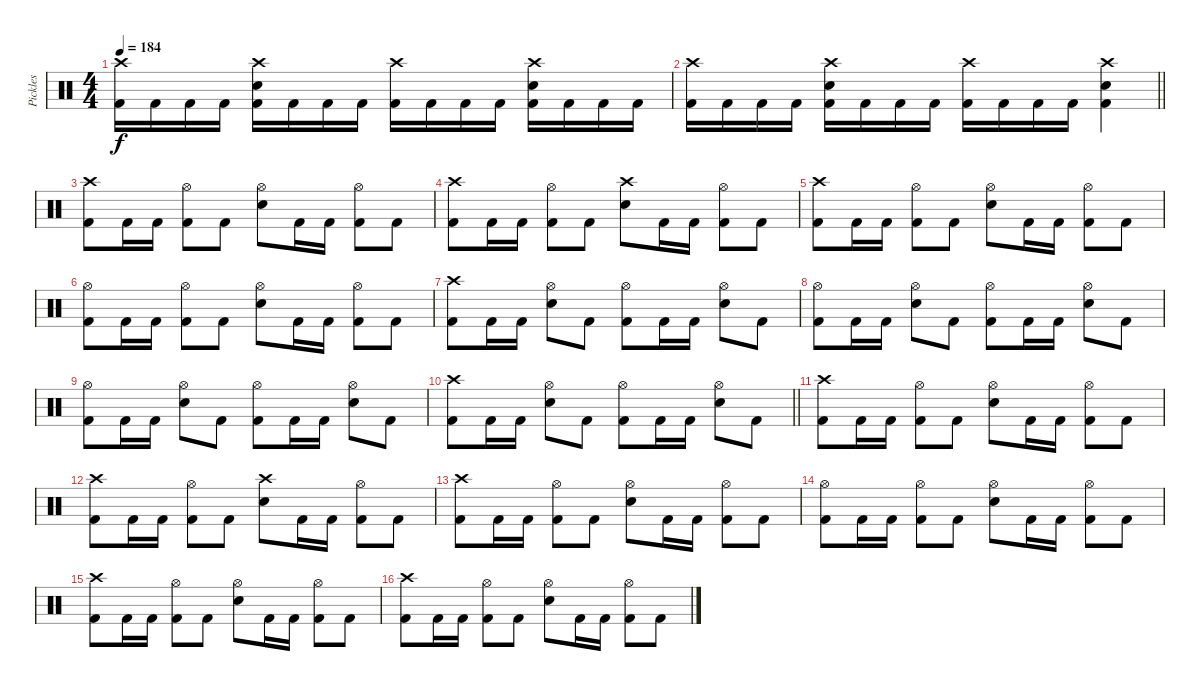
\track ("Pickles" "Pickles") {instrument percussion}
\staff {score}
\articulation defaults
\ts (4 4)
\tempo 184
\clef neutral
\ks aminor
("Crash high (hit)" "Kick (hit) 2").16{dy f} "Kick (hit) 2".16 "Kick (hit) 2".16 "Kick (hit) 2".16 ("Crash high (hit)" "Snare (hit) 2" "Kick (hit) 2").16 "Kick (hit) 2".16 "Kick (hit) 2".16 "Kick (hit) 2".16 ("Crash high (hit)" "Kick (hit) 2").16 "Kick (hit) 2".16 "Kick (hit) 2".16 "Kick (hit) 2".16 ("Crash high (hit)" "Snare (hit) 2" "Kick (hit) 2").16 "Kick (hit) 2".16 "Kick (hit) 2".16 "Kick (hit) 2".16 |
\barLineRight lightlight
("Crash high (hit)" "Kick (hit) 2").16 "Kick (hit) 2".16 "Kick (hit) 2".16 "Kick (hit) 2".16 ("Crash high (hit)" "Snare (hit) 2" "Kick (hit) 2").16 "Kick (hit) 2".16 "Kick (hit) 2".16 "Kick (hit) 2".16 ("Crash high (hit)" "Kick (hit) 2").16 "Kick (hit) 2".16 "Kick (hit) 2".16 "Kick (hit) 2".16 ("Crash high (hit)" "Snare (hit) 2" "Kick (hit) 2").4 |
("Crash high (hit)" "Kick (hit) 2").8 "Kick (hit) 2".16 "Kick (hit) 2".16 ("Hi-Hat (open)" "Kick (hit) 2").8 "Kick (hit) 2".8 ("Hi-Hat (open)" "Snare (hit) 2").8 "Kick (hit) 2".16 "Kick (hit) 2".16 ("Hi-Hat (open)" "Kick (hit) 2").8 "Kick (hit) 2".8 |
("Crash high (hit)" "Kick (hit) 2").8 "Kick (hit) 2".16 "Kick (hit) 2".16 ("Hi-Hat (open)" "Kick (hit) 2").8 "Kick (hit) 2".8 ("Crash high (hit)" "Snare (hit) 2").8 "Kick (hit) 2".16 "Kick (hit) 2".16 ("Hi-Hat (open)" "Kick (hit) 2").8 "Kick (hit) 2".8 |
("Crash high (hit)" "Kick (hit) 2").8 "Kick (hit) 2".16 "Kick (hit) 2".16 ("Hi-Hat (open)" "Kick (hit) 2").8 "Kick (hit) 2".8 ("Hi-Hat (open)" "Snare (hit) 2").8 "Kick (hit) 2".16 "Kick (hit) 2".16 ("Hi-Hat (open)" "Kick (hit) 2").8 "Kick (hit) 2".8 |
("Hi-Hat (open)" "Kick (hit) 2").8 "Kick (hit) 2".16 "Kick (hit) 2".16 ("Hi-Hat (open)" "Kick (hit) 2").8 "Kick (hit) 2".8 ("Hi-Hat (open)" "Snare (hit) 2").8 "Kick (hit) 2".16 "Kick (hit) 2".16 ("Hi-Hat (open)" "Kick (hit) 2").8 "Kick (hit) 2".8 |
("Crash high (hit)" "Kick (hit) 2").8 "Kick (hit) 2".16 "Kick (hit) 2".16 ("Hi-Hat (open)" "Snare (hit) 2").8 "Kick (hit) 2".8 ("Hi-Hat (open)" "Kick (hit) 2").8 "Kick (hit) 2".16 "Kick (hit) 2".16 ("Hi-Hat (open)" "Snare (hit) 2").8 "Kick (hit) 2".8 |
("Hi-Hat (open)" "Kick (hit) 2").8 "Kick (hit) 2".16 "Kick (hit) 2".16 ("Hi-Hat (open)" "Snare (hit) 2").8 "Kick (hit) 2".8 ("Hi-Hat (open)" "Kick (hit) 2").8 "Kick (hit) 2".16 "Kick (hit) 2".16 ("Hi-Hat (open)" "Snare (hit) 2").8 "Kick (hit) 2".8 |
("Hi-Hat (open)" "Kick (hit) 2").8 "Kick (hit) 2".16 "Kick (hit) 2".16 ("Hi-Hat (open)" "Snare (hit) 2").8 "Kick (hit) 2".8 ("Hi-Hat (open)" "Kick (hit) 2").8 "Kick (hit) 2".16 "Kick (hit) 2".16 ("Hi-Hat (open)" "Snare (hit) 2").8 "Kick (hit) 2".8 |
\barLineRight lightlight
("Crash high (hit)" "Kick (hit) 2").8 "Kick (hit) 2".16 "Kick (hit) 2".16 ("Hi-Hat (open)" "Snare (hit) 2").8 "Kick (hit) 2".8 ("Hi-Hat (open)" "Kick (hit) 2").8 "Kick (hit) 2".16 "Kick (hit) 2".16 ("Hi-Hat (open)" "Snare (hit) 2").8 "Kick (hit) 2".8 |
("Crash high (hit)" "Kick (hit) 2").8 "Kick (hit) 2".16 "Kick (hit) 2".16 ("Hi-Hat (open)" "Kick (hit) 2").8 "Kick (hit) 2".8 ("Hi-Hat (open)" "Snare (hit) 2").8 "Kick (hit) 2".16 "Kick (hit) 2".16 ("Hi-Hat (open)" "Kick (hit) 2").8 "Kick (hit) 2".8 |
("Crash high (hit)" "Kick (hit) 2").8 "Kick (hit) 2".16 "Kick (hit) 2".16 ("Hi-Hat (open)" "Kick (hit) 2").8 "Kick (hit) 2".8 ("Crash high (hit)" "Snare (hit) 2").8 "Kick (hit) 2".16 "Kick (hit) 2".16 ("Hi-Hat (open)" "Kick (hit) 2").8 "Kick (hit) 2".8 |
("Crash high (hit)" "Kick (hit) 2").8 "Kick (hit) 2".16 "Kick (hit) 2".16 ("Hi-Hat (open)" "Kick (hit) 2").8 "Kick (hit) 2".8 ("Hi-Hat (open)" "Snare (hit) 2").8 "Kick (hit) 2".16 "Kick (hit) 2".16 ("Hi-Hat (open)" "Kick (hit) 2").8 "Kick (hit) 2".8 |
("Hi-Hat (open)" "Kick (hit) 2").8 "Kick (hit) 2".16 "Kick (hit) 2".16 ("Hi-Hat (open)" "Kick (hit) 2").8 "Kick (hit) 2".8 ("Hi-Hat (open)" "Snare (hit) 2").8 "Kick (hit) 2".16 "Kick (hit) 2".16 ("Hi-Hat (open)" "Kick (hit) 2").8 "Kick (hit) 2".8 |
("Crash high (hit)" "Kick (hit) 2").8 "Kick (hit) 2".16 "Kick (hit) 2".16 ("Hi-Hat (open)" "Kick (hit) 2").8 "Kick (hit) 2".8 ("Hi-Hat (open)" "Snare (hit) 2").8 "Kick (hit) 2".16 "Kick (hit) 2".16 ("Hi-Hat (open)" "Kick (hit) 2").8 "Kick (hit) 2".8 |
("Crash high (hit)" "Kick (hit) 2").8 "Kick (hit) 2".16 "Kick (hit) 2".16 ("Hi-Hat (open)" "Kick (hit) 2").8 "Kick (hit) 2".8 ("Hi-Hat (open)" "Snare (hit) 2").8 "Kick (hit) 2".16 "Kick (hit) 2".16 ("Hi-Hat (open)" "Kick (hit) 2").8 "Kick (hit) 2".8
